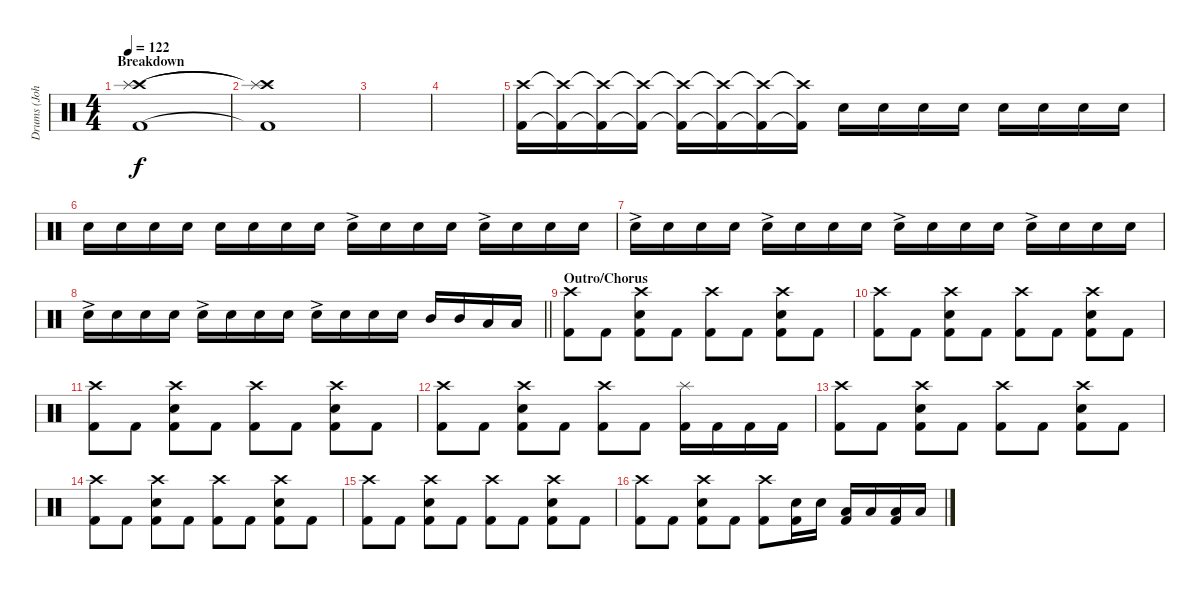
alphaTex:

\track ("Drums (John)" "Drums (Joh") {instrument percussion}
\staff {score}
\articulation defaults
\ts (4 4)
\section ("" "Breakdown")
\tempo 122
\clef neutral
\ks c
("Crash high (hit)" "Splash (hit)" "Kick (hit) 2").1{dy f} |
("Crash high (hit)"{t} "Splash (hit)"{t} "Kick (hit) 2"{t}).1 |
|
|
("Crash high (hit)" "Kick (hit) 2").16 ("Crash high (hit)"{t} "Kick (hit) 2"{t}).16 ("Crash high (hit)"{t} "Kick (hit) 2"{t}).16 ("Crash high (hit)"{t} "Kick (hit) 2"{t}).16 ("Crash high (hit)"{t} "Kick (hit) 2"{t}).16 ("Crash high (hit)"{t} "Kick (hit) 2"{t}).16 ("Crash high (hit)"{t} "Kick (hit) 2"{t}).16 ("Crash high (hit)"{t} "Kick (hit) 2"{t}).16 "Electric Snare (hit)".16{volume 1} "Electric Snare (hit)".16{volume 16} "Electric Snare (hit)".16 "Electric Snare (hit)".16 "Electric Snare (hit)".16 "Electric Snare (hit)".16 "Electric Snare (hit)".16 "Electric Snare (hit)".16 |
"Electric Snare (hit)".16 "Electric Snare (hit)".16 "Electric Snare (hit)".16 "Electric Snare (hit)".16 "Electric Snare (hit)".16 "Electric Snare (hit)".16 "Electric Snare (hit)".16 "Electric Snare (hit)".16 "Electric Snare (hit)"{ac}.16 "Electric Snare (hit)".16 "Electric Snare (hit)".16 "Electric Snare (hit)".16 "Electric Snare (hit)"{ac}.16 "Electric Snare (hit)".16 "Electric Snare (hit)".16 "Electric Snare (hit)".16 |
"Electric Snare (hit)"{ac}.16 "Electric Snare (hit)".16 "Electric Snare (hit)".16 "Electric Snare (hit)".16 "Electric Snare (hit)"{ac}.16 "Electric Snare (hit)".16 "Electric Snare (hit)".16 "Electric Snare (hit)".16 "Electric Snare (hit)"{ac}.16 "Electric Snare (hit)".16 "Electric Snare (hit)".16 "Electric Snare (hit)".16 "Electric Snare (hit)"{ac}.16 "Electric Snare (hit)".16 "Electric Snare (hit)".16 "Electric Snare (hit)".16 |
\barLineRight lightlight "Electric Snare (hit)"{ac}.16 "Electric Snare (hit)".16 "Electric Snare (hit)".16 "Electric Snare (hit)".16 "Electric Snare (hit)"{ac}.16 "Electric Snare (hit)".16 "Electric Snare (hit)".16 "Electric Snare (hit)".16 "Electric Snare (hit)"{ac}.16 "Electric Snare (hit)".16 "Electric Snare (hit)".16 "Electric Snare (hit)".16 "Mid Tom (hit)".16 "Mid Tom (hit)".16 "Low Tom (hit)".16 "Low Tom (hit)".16
|
\section ("" "Outro/Chorus")
("Crash high (hit)" "Kick (hit) 2").8 "Kick (hit) 2".8 ("Crash high (hit)" "Electric Snare (hit)" "Kick (hit) 2").8 "Kick (hit) 2".8 ("Crash high (hit)" "Kick (hit) 2").8 "Kick (hit) 2".8 ("Crash high (hit)" "Electric Snare (hit)" "Kick (hit) 2").8 "Kick (hit) 2".8 |
("Crash high (hit)" "Kick (hit) 2").8 "Kick (hit) 2".8 ("Crash high (hit)" "Electric Snare (hit)" "Kick (hit) 2").8 "Kick (hit) 2".8 ("Crash high (hit)" "Kick (hit) 2").8 "Kick (hit) 2".8 ("Crash high (hit)" "Electric Snare (hit)" "Kick (hit) 2").8 "Kick (hit) 2".8 |
("Crash high (hit)" "Kick (hit) 2").8 "Kick (hit) 2".8 ("Crash high (hit)" "Electric Snare (hit)" "Kick (hit) 2").8 "Kick (hit) 2".8 ("Crash high (hit)" "Kick (hit) 2").8 "Kick (hit) 2".8 ("Crash high (hit)" "Electric Snare (hit)" "Kick (hit) 2").8 "Kick (hit) 2".8 |
("Crash high (hit)" "Kick (hit) 2").8 "Kick (hit) 2".8 ("Crash high (hit)" "Electric Snare (hit)" "Kick (hit) 2").8 "Kick (hit) 2".8 ("Crash high (hit)" "Kick (hit) 2").8 "Kick (hit) 2".8 ("Splash (hit)" "Kick (hit) 2").16 "Kick (hit) 2".16 "Kick (hit) 2".16 "Kick (hit) 2".16 |
("Crash high (hit)" "Kick (hit) 2").8 "Kick (hit) 2".8 ("Crash high (hit)" "Electric Snare (hit)" "Kick (hit) 2").8 "Kick (hit) 2".8 ("Crash high (hit)" "Kick (hit) 2").8 "Kick (hit) 2".8 ("Crash high (hit)" "Electric Snare (hit)" "Kick (hit) 2").8 "Kick (hit) 2".8 |
("Crash high (hit)" "Kick (hit) 2").8 "Kick (hit) 2".8 ("Crash high (hit)" "Electric Snare (hit)" "Kick (hit) 2").8 "Kick (hit) 2".8 ("Crash high (hit)" "Kick (hit) 2").8 "Kick (hit) 2".8 ("Crash high (hit)" "Electric Snare (hit)" "Kick (hit) 2").8 "Kick (hit) 2".8 |
("Crash high (hit)" "Kick (hit) 2").8 "Kick (hit) 2".8 ("Crash high (hit)" "Electric Snare (hit)" "Kick (hit) 2").8 "Kick (hit) 2".8 ("Crash high (hit)" "Kick (hit) 2").8 "Kick (hit) 2".8 ("Crash high (hit)" "Electric Snare (hit)" "Kick (hit) 2").8 "Kick (hit) 2".8 |
("Crash high (hit)" "Kick (hit) 2").8 "Kick (hit) 2".8 ("Crash high (hit)" "Electric Snare (hit)" "Kick (hit) 2").8 "Kick (hit) 2".8 ("Crash high (hit)" "Kick (hit) 2").8 ("Electric Snare (hit)" "Kick (hit) 2").16 "Electric Snare (hit)".16 ("Low Tom (hit)" "Kick (hit) 2").16 "Low Tom (hit)".16 ("Low Tom (hit)" "Kick (hit) 2").16 "Low Tom (hit)".16
